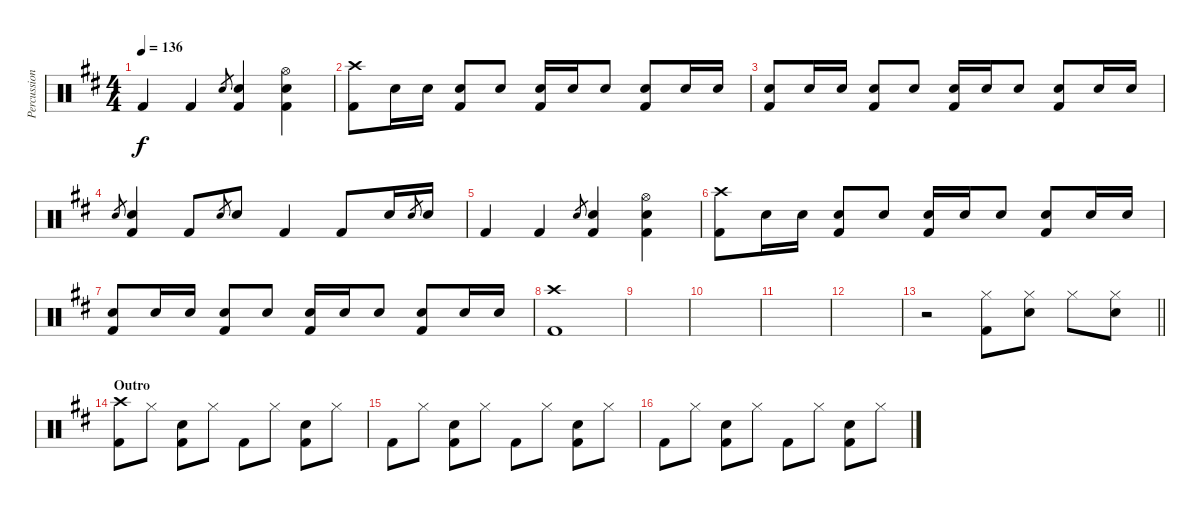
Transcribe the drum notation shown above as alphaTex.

\track ("Percussion" "Percussion") {instrument percussion}
\staff {score}
\articulation defaults
\ts (4 4)
\tempo 136
\clef neutral
\ks d "Kick (hit) 2".4{dy f} "Kick (hit) 2".4 "Electric Snare (hit)".8{gr}
("Electric Snare (hit)" "Kick (hit) 2").4 ("Hi-Hat (open)" "Electric Snare (hit)" "Kick (hit) 2").4 |
("Crash high (hit)" "Kick (hit) 2").8 "Electric Snare (hit)".16 "Electric Snare (hit)".16 ("Electric Snare (hit)" "Kick (hit) 2").8 "Electric Snare (hit)".8 ("Electric Snare (hit)" "Kick (hit) 2").16 "Electric Snare (hit)".16 "Electric Snare (hit)".8 ("Electric Snare (hit)" "Kick (hit) 2").8 "Electric Snare (hit)".16 "Electric Snare (hit)".16 |
("Electric Snare (hit)" "Kick (hit) 2").8 "Electric Snare (hit)".16 "Electric Snare (hit)".16 ("Electric Snare (hit)" "Kick (hit) 2").8 "Electric Snare (hit)".8 ("Electric Snare (hit)" "Kick (hit) 2").16 "Electric Snare (hit)".16 "Electric Snare (hit)".8 ("Electric Snare (hit)" "Kick (hit) 2").8 "Electric Snare (hit)".16 "Electric Snare (hit)".16 |
"Electric Snare (hit)".8{gr} ("Electric Snare (hit)" "Kick (hit) 2").4 "Kick (hit) 2".8 "Electric Snare (hit)".8{gr} "Electric Snare (hit)".8 "Kick (hit) 2".4 "Kick (hit) 2".8 "Electric Snare (hit)".16 "Electric Snare (hit)".8{gr} "Electric Snare (hit)".16 |
"Kick (hit) 2".4 "Kick (hit) 2".4 "Electric Snare (hit)".8{gr} ("Electric Snare (hit)" "Kick (hit) 2").4 ("Hi-Hat (open)" "Electric Snare (hit)" "Kick (hit) 2").4 |
("Crash high (hit)" "Kick (hit) 2").8 "Electric Snare (hit)".16 "Electric Snare (hit)".16 ("Electric Snare (hit)" "Kick (hit) 2").8 "Electric Snare (hit)".8 ("Electric Snare (hit)" "Kick (hit) 2").16 "Electric Snare (hit)".16 "Electric Snare (hit)".8 ("Electric Snare (hit)" "Kick (hit) 2").8 "Electric Snare (hit)".16 "Electric Snare (hit)".16 |
("Electric Snare (hit)" "Kick (hit) 2").8 "Electric Snare (hit)".16 "Electric Snare (hit)".16 ("Electric Snare (hit)" "Kick (hit) 2").8 "Electric Snare (hit)".8 ("Electric Snare (hit)" "Kick (hit) 2").16 "Electric Snare (hit)".16 "Electric Snare (hit)".8 ("Electric Snare (hit)" "Kick (hit) 2").8 "Electric Snare (hit)".16 "Electric Snare (hit)".16 |
("Crash high (hit)" "Kick (hit) 2").1 |
|
|
|
|
\barLineRight lightlight
r.2 ("Hi-Hat (closed)" "Kick (hit) 2").8 ("Hi-Hat (closed)" "Electric Snare (hit)").8 "Hi-Hat (closed)".8 ("Hi-Hat (closed)" "Electric Snare (hit)").8 |
\section ("" "Outro")
("Crash high (hit)" "Kick (hit) 2").8 "Hi-Hat (closed)".8 ("Electric Snare (hit)" "Kick (hit) 2").8 "Hi-Hat (closed)".8 "Kick (hit) 2".8 "Hi-Hat (closed)".8 ("Electric Snare (hit)" "Kick (hit) 2").8 "Hi-Hat (closed)".8 |
"Kick (hit) 2".8 "Hi-Hat (closed)".8 ("Electric Snare (hit)" "Kick (hit) 2").8 "Hi-Hat (closed)".8 "Kick (hit) 2".8 "Hi-Hat (closed)".8 ("Electric Snare (hit)" "Kick (hit) 2").8 "Hi-Hat (closed)".8 |
"Kick (hit) 2".8 "Hi-Hat (closed)".8 ("Electric Snare (hit)" "Kick (hit) 2").8 "Hi-Hat (closed)".8 "Kick (hit) 2".8 "Hi-Hat (closed)".8 ("Electric Snare (hit)" "Kick (hit) 2").8 "Hi-Hat (closed)".8
